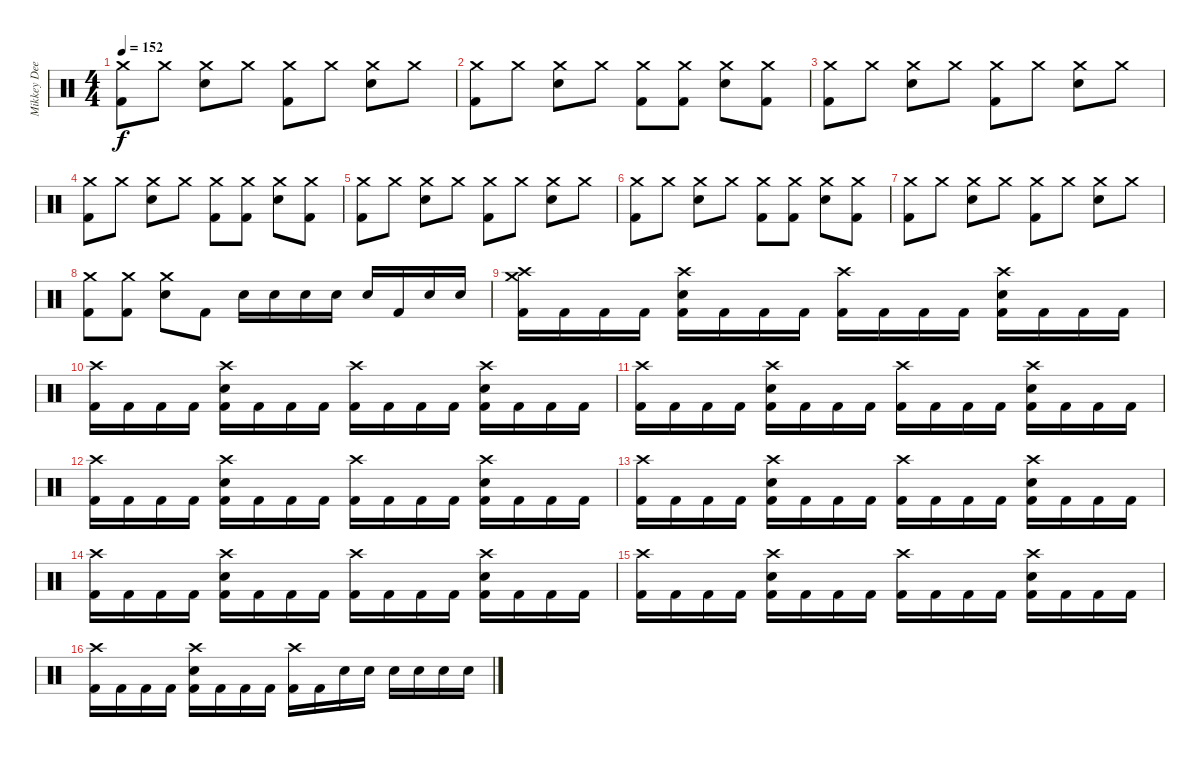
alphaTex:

\track ("Mikkey Dee" "Mikkey Dee") {instrument percussion}
\staff {score}
\articulation defaults
\ts (4 4)
\tempo 152
\clef neutral
\ks c
("Crash medium (hit)" "Kick (hit) 2").8{dy f} "Crash medium (hit)".8 ("Crash medium (hit)" "Snare (hit) 2").8 "Crash medium (hit)".8 ("Crash medium (hit)" "Kick (hit) 2").8 "Crash medium (hit)".8 ("Crash medium (hit)" "Snare (hit) 2").8 "Crash medium (hit)".8 |
("Crash medium (hit)" "Kick (hit) 2").8 "Crash medium (hit)".8 ("Crash medium (hit)" "Snare (hit) 2").8 "Crash medium (hit)".8 ("Crash medium (hit)" "Kick (hit) 2").8 ("Crash medium (hit)" "Kick (hit) 2").8 ("Crash medium (hit)" "Snare (hit) 2").8 ("Crash medium (hit)" "Kick (hit) 2").8 |
("Crash medium (hit)" "Kick (hit) 2").8 "Crash medium (hit)".8 ("Crash medium (hit)" "Snare (hit) 2").8 "Crash medium (hit)".8 ("Crash medium (hit)" "Kick (hit) 2").8 "Crash medium (hit)".8 ("Crash medium (hit)" "Snare (hit) 2").8 "Crash medium (hit)".8 |
("Crash medium (hit)" "Kick (hit) 2").8 "Crash medium (hit)".8 ("Crash medium (hit)" "Snare (hit) 2").8 "Crash medium (hit)".8 ("Crash medium (hit)" "Kick (hit) 2").8 ("Crash medium (hit)" "Kick (hit) 2").8 ("Crash medium (hit)" "Snare (hit) 2").8 ("Crash medium (hit)" "Kick (hit) 2").8 |
("Crash medium (hit)" "Kick (hit) 2").8 "Crash medium (hit)".8 ("Crash medium (hit)" "Snare (hit) 2").8 "Crash medium (hit)".8 ("Crash medium (hit)" "Kick (hit) 2").8 "Crash medium (hit)".8 ("Crash medium (hit)" "Snare (hit) 2").8 "Crash medium (hit)".8 |
("Crash medium (hit)" "Kick (hit) 2").8 "Crash medium (hit)".8 ("Crash medium (hit)" "Snare (hit) 2").8 "Crash medium (hit)".8 ("Crash medium (hit)" "Kick (hit) 2").8 ("Crash medium (hit)" "Kick (hit) 2").8 ("Crash medium (hit)" "Snare (hit) 2").8 ("Crash medium (hit)" "Kick (hit) 2").8 |
("Crash medium (hit)" "Kick (hit) 2").8 "Crash medium (hit)".8 ("Crash medium (hit)" "Snare (hit) 2").8 "Crash medium (hit)".8 ("Crash medium (hit)" "Kick (hit) 2").8 "Crash medium (hit)".8 ("Crash medium (hit)" "Snare (hit) 2").8 "Crash medium (hit)".8 |
("Crash medium (hit)" "Kick (hit) 2").8 ("Crash medium (hit)" "Kick (hit) 2").8 ("Crash medium (hit)" "Snare (hit) 2").8 "Kick (hit) 2".8 "Snare (hit) 2".16 "Snare (hit) 2".16 "Snare (hit) 2".16 "Snare (hit) 2".16 "Snare (hit) 2".16 "Kick (hit) 2".16 "Snare (hit) 2".16 "Snare (hit) 2".16 |
("Crash high (hit)" "Crash medium (hit)" "Kick (hit) 2").16 "Kick (hit) 2".16 "Kick (hit) 2".16 "Kick (hit) 2".16 ("Crash high (hit)" "Snare (hit) 2" "Kick (hit) 2").16 "Kick (hit) 2".16 "Kick (hit) 2".16 "Kick (hit) 2".16 ("Crash high (hit)" "Kick (hit) 2").16 "Kick (hit) 2".16 "Kick (hit) 2".16 "Kick (hit) 2".16 ("Crash high (hit)" "Snare (hit) 2" "Kick (hit) 2").16 "Kick (hit) 2".16 "Kick (hit) 2".16 "Kick (hit) 2".16 |
("Crash high (hit)" "Kick (hit) 2").16 "Kick (hit) 2".16 "Kick (hit) 2".16 "Kick (hit) 2".16 ("Crash high (hit)" "Snare (hit) 2" "Kick (hit) 2").16 "Kick (hit) 2".16 "Kick (hit) 2".16 "Kick (hit) 2".16 ("Crash high (hit)" "Kick (hit) 2").16 "Kick (hit) 2".16 "Kick (hit) 2".16 "Kick (hit) 2".16 ("Crash high (hit)" "Snare (hit) 2" "Kick (hit) 2").16 "Kick (hit) 2".16 "Kick (hit) 2".16 "Kick (hit) 2".16 |
("Crash high (hit)" "Kick (hit) 2").16 "Kick (hit) 2".16 "Kick (hit) 2".16 "Kick (hit) 2".16 ("Crash high (hit)" "Snare (hit) 2" "Kick (hit) 2").16 "Kick (hit) 2".16 "Kick (hit) 2".16 "Kick (hit) 2".16 ("Crash high (hit)" "Kick (hit) 2").16 "Kick (hit) 2".16 "Kick (hit) 2".16 "Kick (hit) 2".16 ("Crash high (hit)" "Snare (hit) 2" "Kick (hit) 2").16 "Kick (hit) 2".16 "Kick (hit) 2".16 "Kick (hit) 2".16 |
("Crash high (hit)" "Kick (hit) 2").16 "Kick (hit) 2".16 "Kick (hit) 2".16 "Kick (hit) 2".16 ("Crash high (hit)" "Snare (hit) 2" "Kick (hit) 2").16 "Kick (hit) 2".16 "Kick (hit) 2".16 "Kick (hit) 2".16 ("Crash high (hit)" "Kick (hit) 2").16 "Kick (hit) 2".16 "Kick (hit) 2".16 "Kick (hit) 2".16 ("Crash high (hit)" "Snare (hit) 2" "Kick (hit) 2").16 "Kick (hit) 2".16 "Kick (hit) 2".16 "Kick (hit) 2".16 |
("Crash high (hit)" "Kick (hit) 2").16 "Kick (hit) 2".16 "Kick (hit) 2".16 "Kick (hit) 2".16 ("Crash high (hit)" "Snare (hit) 2" "Kick (hit) 2").16 "Kick (hit) 2".16 "Kick (hit) 2".16 "Kick (hit) 2".16 ("Crash high (hit)" "Kick (hit) 2").16 "Kick (hit) 2".16 "Kick (hit) 2".16 "Kick (hit) 2".16 ("Crash high (hit)" "Snare (hit) 2" "Kick (hit) 2").16 "Kick (hit) 2".16 "Kick (hit) 2".16 "Kick (hit) 2".16 |
("Crash high (hit)" "Kick (hit) 2").16 "Kick (hit) 2".16 "Kick (hit) 2".16 "Kick (hit) 2".16 ("Crash high (hit)" "Snare (hit) 2" "Kick (hit) 2").16 "Kick (hit) 2".16 "Kick (hit) 2".16 "Kick (hit) 2".16 ("Crash high (hit)" "Kick (hit) 2").16 "Kick (hit) 2".16 "Kick (hit) 2".16 "Kick (hit) 2".16 ("Crash high (hit)" "Snare (hit) 2" "Kick (hit) 2").16 "Kick (hit) 2".16 "Kick (hit) 2".16 "Kick (hit) 2".16 |
("Crash high (hit)" "Kick (hit) 2").16 "Kick (hit) 2".16 "Kick (hit) 2".16 "Kick (hit) 2".16 ("Crash high (hit)" "Snare (hit) 2" "Kick (hit) 2").16 "Kick (hit) 2".16 "Kick (hit) 2".16 "Kick (hit) 2".16 ("Crash high (hit)" "Kick (hit) 2").16 "Kick (hit) 2".16 "Kick (hit) 2".16 "Kick (hit) 2".16 ("Crash high (hit)" "Snare (hit) 2" "Kick (hit) 2").16 "Kick (hit) 2".16 "Kick (hit) 2".16 "Kick (hit) 2".16 |
("Crash high (hit)" "Kick (hit) 2").16 "Kick (hit) 2".16 "Kick (hit) 2".16 "Kick (hit) 2".16 ("Crash high (hit)" "Snare (hit) 2" "Kick (hit) 2").16 "Kick (hit) 2".16 "Kick (hit) 2".16 "Kick (hit) 2".16 ("Crash high (hit)" "Kick (hit) 2").16 "Kick (hit) 2".16 "Snare (hit) 2".16 "Snare (hit) 2".16 "Snare (hit) 2".16 "Snare (hit) 2".16 "Snare (hit) 2".16 "Snare (hit) 2".16
